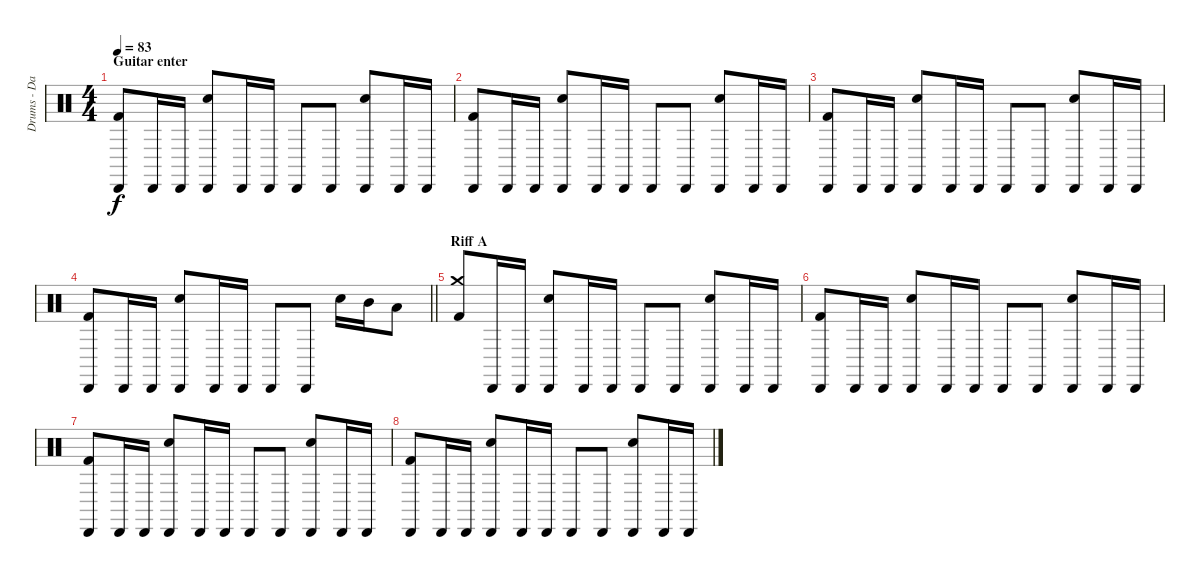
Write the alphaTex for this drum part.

\track ("Drums - Danny Carey" "Drums - Da") {instrument percussion}
\staff {score}
\articulation defaults
\ts (4 4)
\section ("" "Guitar enter")
\tempo 83
\clef neutral
\ks c
("Cabasa (hit)" "Kick (hit) 2").8{dy f volume 13} "Cabasa (hit)".16 "Cabasa (hit)".16 ("Cabasa (hit)" "Electric Snare (hit)").8 "Cabasa (hit)".16 "Cabasa (hit)".16 "Cabasa (hit)".8 "Cabasa (hit)".8 ("Cabasa (hit)" "Electric Snare (hit)").8 "Cabasa (hit)".16 "Cabasa (hit)".16 |
("Cabasa (hit)" "Kick (hit) 2").8 "Cabasa (hit)".16 "Cabasa (hit)".16 ("Cabasa (hit)" "Electric Snare (hit)").8 "Cabasa (hit)".16 "Cabasa (hit)".16 "Cabasa (hit)".8 "Cabasa (hit)".8 ("Cabasa (hit)" "Electric Snare (hit)").8 "Cabasa (hit)".16 "Cabasa (hit)".16 |
("Cabasa (hit)" "Kick (hit) 2").8 "Cabasa (hit)".16 "Cabasa (hit)".16 ("Cabasa (hit)" "Electric Snare (hit)").8 "Cabasa (hit)".16 "Cabasa (hit)".16 "Cabasa (hit)".8 "Cabasa (hit)".8 ("Cabasa (hit)" "Electric Snare (hit)").8 "Cabasa (hit)".16 "Cabasa (hit)".16 |
\barLineRight lightlight
("Cabasa (hit)" "Kick (hit) 2").8 "Cabasa (hit)".16 "Cabasa (hit)".16 ("Cabasa (hit)" "Electric Snare (hit)").8 "Cabasa (hit)".16 "Cabasa (hit)".16 "Cabasa (hit)".8 "Cabasa (hit)".8 "Electric Snare (hit)".16 "Mid Tom (hit)".16 "Low Tom (hit)".8 |
\section ("" "Riff A")
("Crash medium (hit)" "Kick (hit) 2").8 "Cabasa (hit)".16 "Cabasa (hit)".16 ("Cabasa (hit)" "Electric Snare (hit)").8 "Cabasa (hit)".16 "Cabasa (hit)".16 "Cabasa (hit)".8 "Cabasa (hit)".8 ("Cabasa (hit)" "Electric Snare (hit)").8 "Cabasa (hit)".16 "Cabasa (hit)".16 |
("Cabasa (hit)" "Kick (hit) 2").8 "Cabasa (hit)".16 "Cabasa (hit)".16 ("Cabasa (hit)" "Electric Snare (hit)").8 "Cabasa (hit)".16 "Cabasa (hit)".16 "Cabasa (hit)".8 "Cabasa (hit)".8 ("Cabasa (hit)" "Electric Snare (hit)").8 "Cabasa (hit)".16 "Cabasa (hit)".16 |
("Cabasa (hit)" "Kick (hit) 2").8 "Cabasa (hit)".16 "Cabasa (hit)".16 ("Cabasa (hit)" "Electric Snare (hit)").8 "Cabasa (hit)".16 "Cabasa (hit)".16 "Cabasa (hit)".8 "Cabasa (hit)".8 ("Cabasa (hit)" "Electric Snare (hit)").8 "Cabasa (hit)".16 "Cabasa (hit)".16 |
("Cabasa (hit)" "Kick (hit) 2").8 "Cabasa (hit)".16 "Cabasa (hit)".16 ("Cabasa (hit)" "Electric Snare (hit)").8 "Cabasa (hit)".16 "Cabasa (hit)".16 "Cabasa (hit)".8 "Cabasa (hit)".8 ("Cabasa (hit)" "Electric Snare (hit)").8 "Cabasa (hit)".16 "Cabasa (hit)".16
